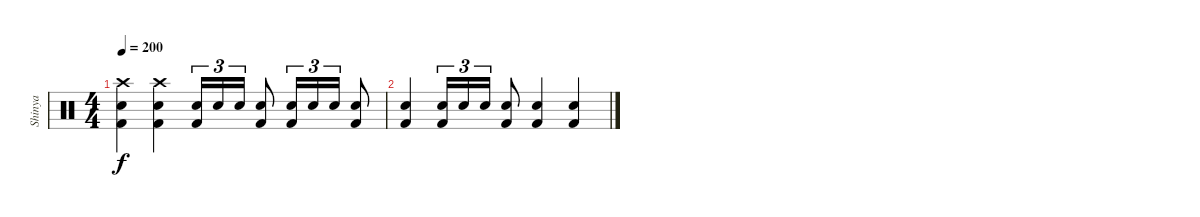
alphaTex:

\track ("Shinya" "Shinya") {instrument percussion}
\staff {score}
\articulation defaults
\ts (4 4)
\tempo 200
\clef neutral
\ks c
("Crash high (hit)" "Electric Snare (hit)" "Kick (hit) 2").4{dy f} ("Crash high (hit)" "Electric Snare (hit)" "Kick (hit) 2").4 ("Electric Snare (hit)" "Kick (hit) 2").16{tu (3 2)} "Electric Snare (hit)".16{tu (3 2)} "Electric Snare (hit)".16{tu (3 2)} ("Electric Snare (hit)" "Kick (hit) 2").8 ("Electric Snare (hit)" "Kick (hit) 2").16{tu (3 2)} "Electric Snare (hit)".16{tu (3 2)} "Electric Snare (hit)".16{tu (3 2)} ("Electric Snare (hit)" "Kick (hit) 2").8 |
("Electric Snare (hit)" "Kick (hit) 2").4 ("Electric Snare (hit)" "Kick (hit) 2").16{tu (3 2)} "Electric Snare (hit)".16{tu (3 2)} "Electric Snare (hit)".16{tu (3 2)} ("Electric Snare (hit)" "Kick (hit) 2").8 ("Electric Snare (hit)" "Kick (hit) 2").4 ("Electric Snare (hit)" "Kick (hit) 2").4
